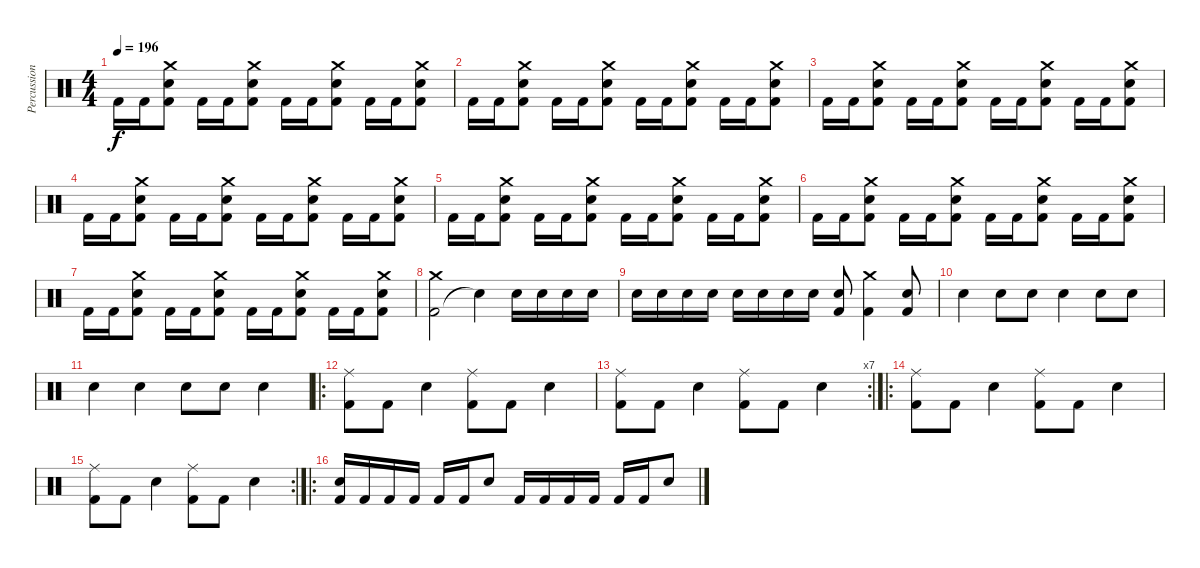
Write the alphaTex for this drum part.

\track ("Percussions" "Percussion") {instrument percussion}
\staff {score}
\articulation defaults
\ts (4 4)
\tempo 196
\clef neutral
\ks c "Kick (hit) 2".16{dy f} "Kick (hit) 2".16
("Kick (hit) 2" "Snare (hit) 2" "Crash medium (hit)").8 "Kick (hit) 2".16 "Kick (hit) 2".16 ("Kick (hit) 2" "Snare (hit) 2" "Crash medium (hit)").8 "Kick (hit) 2".16 "Kick (hit) 2".16 ("Kick (hit) 2" "Snare (hit) 2" "Crash medium (hit)").8 "Kick (hit) 2".16 "Kick (hit) 2".16 ("Kick (hit) 2" "Snare (hit) 2" "Crash medium (hit)").8 |
"Kick (hit) 2".16 "Kick (hit) 2".16 ("Kick (hit) 2" "Snare (hit) 2" "Crash medium (hit)").8 "Kick (hit) 2".16 "Kick (hit) 2".16 ("Kick (hit) 2" "Snare (hit) 2" "Crash medium (hit)").8 "Kick (hit) 2".16 "Kick (hit) 2".16 ("Kick (hit) 2" "Snare (hit) 2" "Crash medium (hit)").8 "Kick (hit) 2".16 "Kick (hit) 2".16 ("Kick (hit) 2" "Snare (hit) 2" "Crash medium (hit)").8 |
"Kick (hit) 2".16 "Kick (hit) 2".16 ("Kick (hit) 2" "Snare (hit) 2" "Crash medium (hit)").8 "Kick (hit) 2".16 "Kick (hit) 2".16 ("Kick (hit) 2" "Snare (hit) 2" "Crash medium (hit)").8 "Kick (hit) 2".16 "Kick (hit) 2".16 ("Kick (hit) 2" "Snare (hit) 2" "Crash medium (hit)").8 "Kick (hit) 2".16 "Kick (hit) 2".16 ("Kick (hit) 2" "Snare (hit) 2" "Crash medium (hit)").8 |
"Kick (hit) 2".16 "Kick (hit) 2".16 ("Kick (hit) 2" "Snare (hit) 2" "Crash medium (hit)").8 "Kick (hit) 2".16 "Kick (hit) 2".16 ("Kick (hit) 2" "Snare (hit) 2" "Crash medium (hit)").8 "Kick (hit) 2".16 "Kick (hit) 2".16 ("Kick (hit) 2" "Snare (hit) 2" "Crash medium (hit)").8 "Kick (hit) 2".16 "Kick (hit) 2".16 ("Kick (hit) 2" "Snare (hit) 2" "Crash medium (hit)").8 |
"Kick (hit) 2".16 "Kick (hit) 2".16 ("Kick (hit) 2" "Snare (hit) 2" "Crash medium (hit)").8 "Kick (hit) 2".16 "Kick (hit) 2".16 ("Kick (hit) 2" "Snare (hit) 2" "Crash medium (hit)").8 "Kick (hit) 2".16 "Kick (hit) 2".16 ("Kick (hit) 2" "Snare (hit) 2" "Crash medium (hit)").8 "Kick (hit) 2".16 "Kick (hit) 2".16 ("Kick (hit) 2" "Snare (hit) 2" "Crash medium (hit)").8 |
"Kick (hit) 2".16 "Kick (hit) 2".16 ("Kick (hit) 2" "Snare (hit) 2" "Crash medium (hit)").8 "Kick (hit) 2".16 "Kick (hit) 2".16 ("Kick (hit) 2" "Snare (hit) 2" "Crash medium (hit)").8 "Kick (hit) 2".16 "Kick (hit) 2".16 ("Kick (hit) 2" "Snare (hit) 2" "Crash medium (hit)").8 "Kick (hit) 2".16 "Kick (hit) 2".16 ("Kick (hit) 2" "Snare (hit) 2" "Crash medium (hit)").8 |
"Kick (hit) 2".16 "Kick (hit) 2".16 ("Kick (hit) 2" "Snare (hit) 2" "Crash medium (hit)").8 "Kick (hit) 2".16 "Kick (hit) 2".16 ("Kick (hit) 2" "Snare (hit) 2" "Crash medium (hit)").8 "Kick (hit) 2".16 "Kick (hit) 2".16 ("Kick (hit) 2" "Snare (hit) 2" "Crash medium (hit)").8 "Kick (hit) 2".16 "Kick (hit) 2".16 ("Kick (hit) 2" "Snare (hit) 2" "Crash medium (hit)").8 |
("Kick (hit) 2" "Crash medium (hit)").2 "Snare (hit)"{t}.4 "Snare (hit) 2".16 "Snare (hit) 2".16 "Snare (hit) 2".16 "Snare (hit) 2".16 |
"Snare (hit) 2".16 "Snare (hit) 2".16 "Snare (hit) 2".16 "Snare (hit) 2".16 "Snare (hit) 2".16 "Snare (hit) 2".16 "Snare (hit) 2".16 "Snare (hit) 2".16 ("Kick (hit) 2" "Snare (hit) 2").8 ("Kick (hit) 2" "Crash medium (hit)").4 ("Kick (hit) 2" "Snare (hit) 2").8 |
"Snare (hit) 2".4 "Snare (hit) 2".8 "Snare (hit) 2".8 "Snare (hit) 2".4 "Snare (hit) 2".8 "Snare (hit) 2".8 |
"Snare (hit) 2".4 "Snare (hit) 2".4 "Snare (hit) 2".8 "Snare (hit) 2".8 "Snare (hit) 2".4 |
\ro
("Kick (hit) 2" "Ride (middle)").8 "Kick (hit) 2".8 "Snare (hit) 2".4 ("Kick (hit) 2" "Ride (middle)").8 "Kick (hit) 2".8 "Snare (hit) 2".4 |
\rc 7
("Kick (hit) 2" "Ride (middle)").8 "Kick (hit) 2".8 "Snare (hit) 2".4 ("Kick (hit) 2" "Ride (middle)").8 "Kick (hit) 2".8 "Snare (hit) 2".4 |
\ro
("Kick (hit) 2" "Ride (middle)").8 "Kick (hit) 2".8 "Snare (hit) 2".4 ("Kick (hit) 2" "Ride (middle)").8 "Kick (hit) 2".8 "Snare (hit) 2".4 |
\rc 2
("Kick (hit) 2" "Ride (middle)").8 "Kick (hit) 2".8 "Snare (hit) 2".4 ("Kick (hit) 2" "Ride (middle)").8 "Kick (hit) 2".8 "Snare (hit) 2".4 |
\ro
("Kick (hit) 2" "Snare (hit) 2").16 "Kick (hit) 2".16 "Kick (hit) 2".16 "Kick (hit) 2".16 "Kick (hit) 2".16 "Kick (hit) 2".16 "Snare (hit) 2".8 "Kick (hit) 2".16 "Kick (hit) 2".16 "Kick (hit) 2".16 "Kick (hit) 2".16 "Kick (hit) 2".16 "Kick (hit) 2".16 "Snare (hit) 2".8
